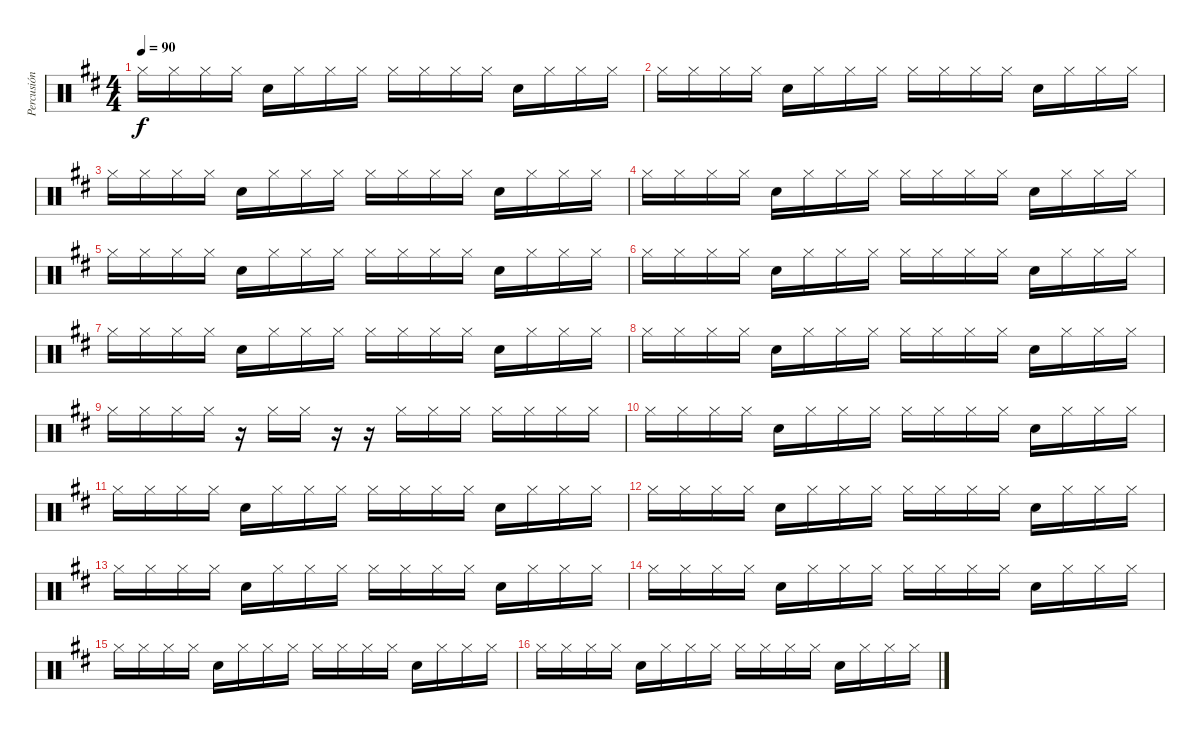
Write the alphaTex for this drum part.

\track ("Percusión" "Percusión") {instrument percussion}
\staff {score}
\articulation defaults
\ts (4 4)
\tempo 90
\clef neutral
\ks d "Hi-Hat (closed)".16{dy f} "Hi-Hat (closed)".16 "Hi-Hat (closed)".16 "Hi-Hat (closed)".16 "Snare (hit) 2".16 "Hi-Hat (closed)".16 "Hi-Hat (closed)".16 "Hi-Hat (closed)".16 "Hi-Hat (closed)".16 "Hi-Hat (closed)".16 "Hi-Hat (closed)".16 "Hi-Hat (closed)".16 "Snare (hit) 2".16 "Hi-Hat (closed)".16 "Hi-Hat (closed)".16 "Hi-Hat (closed)".16
|
"Hi-Hat (closed)".16 "Hi-Hat (closed)".16 "Hi-Hat (closed)".16 "Hi-Hat (closed)".16 "Snare (hit) 2".16 "Hi-Hat (closed)".16 "Hi-Hat (closed)".16 "Hi-Hat (closed)".16 "Hi-Hat (closed)".16 "Hi-Hat (closed)".16 "Hi-Hat (closed)".16 "Hi-Hat (closed)".16 "Snare (hit) 2".16 "Hi-Hat (closed)".16 "Hi-Hat (closed)".16 "Hi-Hat (closed)".16 |
"Hi-Hat (closed)".16 "Hi-Hat (closed)".16 "Hi-Hat (closed)".16 "Hi-Hat (closed)".16 "Snare (hit) 2".16 "Hi-Hat (closed)".16 "Hi-Hat (closed)".16 "Hi-Hat (closed)".16 "Hi-Hat (closed)".16 "Hi-Hat (closed)".16 "Hi-Hat (closed)".16 "Hi-Hat (closed)".16 "Snare (hit) 2".16 "Hi-Hat (closed)".16 "Hi-Hat (closed)".16 "Hi-Hat (closed)".16 |
"Hi-Hat (closed)".16 "Hi-Hat (closed)".16 "Hi-Hat (closed)".16 "Hi-Hat (closed)".16 "Snare (hit) 2".16 "Hi-Hat (closed)".16 "Hi-Hat (closed)".16 "Hi-Hat (closed)".16 "Hi-Hat (closed)".16 "Hi-Hat (closed)".16 "Hi-Hat (closed)".16 "Hi-Hat (closed)".16 "Snare (hit) 2".16 "Hi-Hat (closed)".16 "Hi-Hat (closed)".16 "Hi-Hat (closed)".16 |
"Hi-Hat (closed)".16 "Hi-Hat (closed)".16 "Hi-Hat (closed)".16 "Hi-Hat (closed)".16 "Snare (hit) 2".16 "Hi-Hat (closed)".16 "Hi-Hat (closed)".16 "Hi-Hat (closed)".16 "Hi-Hat (closed)".16 "Hi-Hat (closed)".16 "Hi-Hat (closed)".16 "Hi-Hat (closed)".16 "Snare (hit) 2".16 "Hi-Hat (closed)".16 "Hi-Hat (closed)".16 "Hi-Hat (closed)".16 |
"Hi-Hat (closed)".16 "Hi-Hat (closed)".16 "Hi-Hat (closed)".16 "Hi-Hat (closed)".16 "Snare (hit) 2".16 "Hi-Hat (closed)".16 "Hi-Hat (closed)".16 "Hi-Hat (closed)".16 "Hi-Hat (closed)".16 "Hi-Hat (closed)".16 "Hi-Hat (closed)".16 "Hi-Hat (closed)".16 "Snare (hit) 2".16 "Hi-Hat (closed)".16 "Hi-Hat (closed)".16 "Hi-Hat (closed)".16 |
"Hi-Hat (closed)".16 "Hi-Hat (closed)".16 "Hi-Hat (closed)".16 "Hi-Hat (closed)".16 "Snare (hit) 2".16 "Hi-Hat (closed)".16 "Hi-Hat (closed)".16 "Hi-Hat (closed)".16 "Hi-Hat (closed)".16 "Hi-Hat (closed)".16 "Hi-Hat (closed)".16 "Hi-Hat (closed)".16 "Snare (hit) 2".16 "Hi-Hat (closed)".16 "Hi-Hat (closed)".16 "Hi-Hat (closed)".16 |
"Hi-Hat (closed)".16 "Hi-Hat (closed)".16 "Hi-Hat (closed)".16 "Hi-Hat (closed)".16 "Snare (hit) 2".16 "Hi-Hat (closed)".16 "Hi-Hat (closed)".16 "Hi-Hat (closed)".16 "Hi-Hat (closed)".16 "Hi-Hat (closed)".16 "Hi-Hat (closed)".16 "Hi-Hat (closed)".16 "Snare (hit) 2".16 "Hi-Hat (closed)".16 "Hi-Hat (closed)".16 "Hi-Hat (closed)".16 |
"Hi-Hat (closed)".16 "Hi-Hat (closed)".16 "Hi-Hat (closed)".16 "Hi-Hat (closed)".16 r.16 "Hi-Hat (closed)".16 "Hi-Hat (closed)".16 r.16 r.16 "Hi-Hat (closed)".16 "Hi-Hat (closed)".16 "Hi-Hat (closed)".16 "Hi-Hat (closed)".16 "Hi-Hat (closed)".16 "Hi-Hat (closed)".16 "Hi-Hat (closed)".16 |
"Hi-Hat (closed)".16 "Hi-Hat (closed)".16 "Hi-Hat (closed)".16 "Hi-Hat (closed)".16 "Snare (hit) 2".16 "Hi-Hat (closed)".16 "Hi-Hat (closed)".16 "Hi-Hat (closed)".16 "Hi-Hat (closed)".16 "Hi-Hat (closed)".16 "Hi-Hat (closed)".16 "Hi-Hat (closed)".16 "Snare (hit) 2".16 "Hi-Hat (closed)".16 "Hi-Hat (closed)".16 "Hi-Hat (closed)".16 |
"Hi-Hat (closed)".16 "Hi-Hat (closed)".16 "Hi-Hat (closed)".16 "Hi-Hat (closed)".16 "Snare (hit) 2".16 "Hi-Hat (closed)".16 "Hi-Hat (closed)".16 "Hi-Hat (closed)".16 "Hi-Hat (closed)".16 "Hi-Hat (closed)".16 "Hi-Hat (closed)".16 "Hi-Hat (closed)".16 "Snare (hit) 2".16 "Hi-Hat (closed)".16 "Hi-Hat (closed)".16 "Hi-Hat (closed)".16 |
"Hi-Hat (closed)".16 "Hi-Hat (closed)".16 "Hi-Hat (closed)".16 "Hi-Hat (closed)".16 "Snare (hit) 2".16 "Hi-Hat (closed)".16 "Hi-Hat (closed)".16 "Hi-Hat (closed)".16 "Hi-Hat (closed)".16 "Hi-Hat (closed)".16 "Hi-Hat (closed)".16 "Hi-Hat (closed)".16 "Snare (hit) 2".16 "Hi-Hat (closed)".16 "Hi-Hat (closed)".16 "Hi-Hat (closed)".16 |
"Hi-Hat (closed)".16 "Hi-Hat (closed)".16 "Hi-Hat (closed)".16 "Hi-Hat (closed)".16 "Snare (hit) 2".16 "Hi-Hat (closed)".16 "Hi-Hat (closed)".16 "Hi-Hat (closed)".16 "Hi-Hat (closed)".16 "Hi-Hat (closed)".16 "Hi-Hat (closed)".16 "Hi-Hat (closed)".16 "Snare (hit) 2".16 "Hi-Hat (closed)".16 "Hi-Hat (closed)".16 "Hi-Hat (closed)".16 |
"Hi-Hat (closed)".16 "Hi-Hat (closed)".16 "Hi-Hat (closed)".16 "Hi-Hat (closed)".16 "Snare (hit) 2".16 "Hi-Hat (closed)".16 "Hi-Hat (closed)".16 "Hi-Hat (closed)".16 "Hi-Hat (closed)".16 "Hi-Hat (closed)".16 "Hi-Hat (closed)".16 "Hi-Hat (closed)".16 "Snare (hit) 2".16 "Hi-Hat (closed)".16 "Hi-Hat (closed)".16 "Hi-Hat (closed)".16 |
"Hi-Hat (closed)".16 "Hi-Hat (closed)".16 "Hi-Hat (closed)".16 "Hi-Hat (closed)".16 "Snare (hit) 2".16 "Hi-Hat (closed)".16 "Hi-Hat (closed)".16 "Hi-Hat (closed)".16 "Hi-Hat (closed)".16 "Hi-Hat (closed)".16 "Hi-Hat (closed)".16 "Hi-Hat (closed)".16 "Snare (hit) 2".16 "Hi-Hat (closed)".16 "Hi-Hat (closed)".16 "Hi-Hat (closed)".16 |
"Hi-Hat (closed)".16 "Hi-Hat (closed)".16 "Hi-Hat (closed)".16 "Hi-Hat (closed)".16 "Snare (hit) 2".16 "Hi-Hat (closed)".16 "Hi-Hat (closed)".16 "Hi-Hat (closed)".16 "Hi-Hat (closed)".16 "Hi-Hat (closed)".16 "Hi-Hat (closed)".16 "Hi-Hat (closed)".16 "Snare (hit) 2".16 "Hi-Hat (closed)".16 "Hi-Hat (closed)".16 "Hi-Hat (closed)".16
